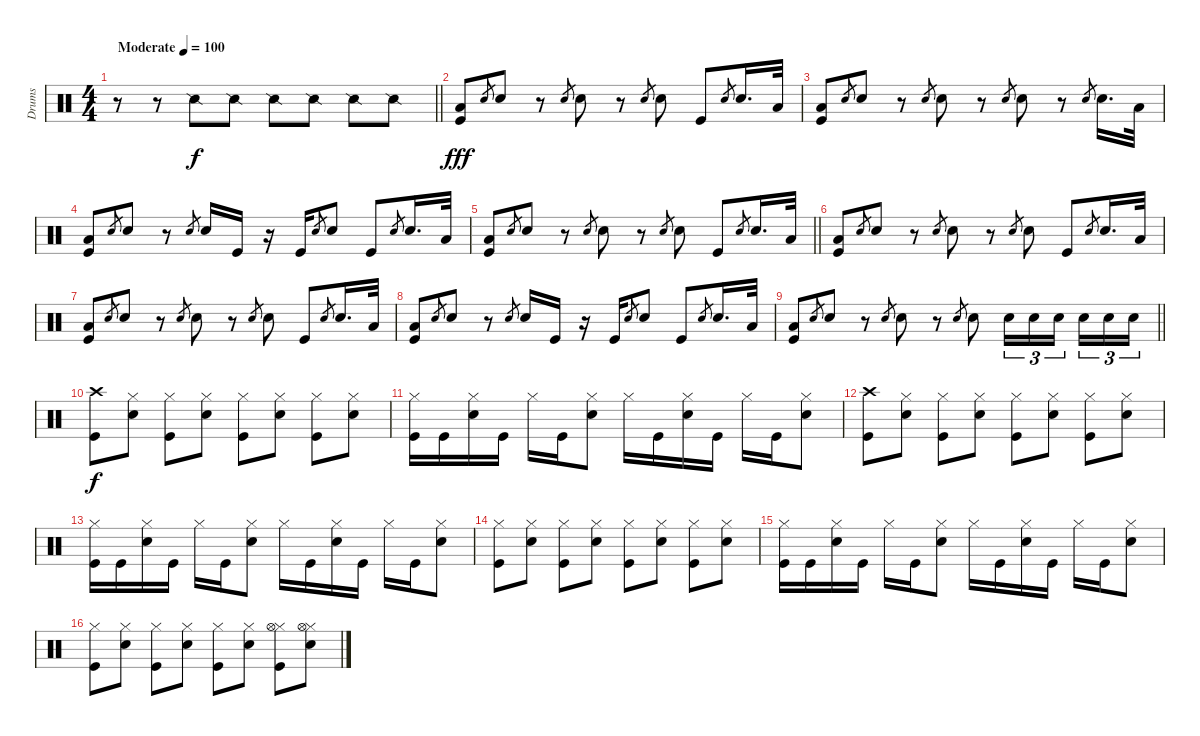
\track ("Drums" "Drums") {instrument percussion}
\staff {score}
\articulation defaults
\ts (4 4)
\tempo (100 "Moderate")
\clef neutral
\barLineRight lightlight
\ks c
r.8{dy f} r.8 "Snare (side stick) 2".8 "Snare (side stick) 2".8 "Snare (side stick) 2".8 "Snare (side stick) 2".8 "Snare (side stick) 2".8 "Snare (side stick) 2".8 |
\section ("" "")
("Low Floor Tom (hit)" "Kick (hit)").8{dy fff} "Snare (hit) 2".8{gr} "Snare (hit) 2".8 r.8 "Snare (hit) 2".8{gr} "Snare (hit) 2".8 r.8 "Snare (hit) 2".8{gr} "Snare (hit) 2".8 "Kick (hit)".8 "Snare (hit) 2".8{gr} "Snare (hit) 2".16{d} "Low Floor Tom (hit)".32 |
("Low Floor Tom (hit)" "Kick (hit)").8 "Snare (hit) 2".8{gr} "Snare (hit) 2".8 r.8 "Snare (hit) 2".8{gr} "Snare (hit) 2".8 r.8 "Snare (hit) 2".8{gr} "Snare (hit) 2".8 r.8 "Snare (hit) 2".8{gr} "Snare (hit) 2".16{d} "Low Floor Tom (hit)".32 |
("Low Floor Tom (hit)" "Kick (hit)").8 "Snare (hit) 2".8{gr} "Snare (hit) 2".8 r.8 "Snare (hit) 2".8{gr} "Snare (hit) 2".16 "Kick (hit)".16 r.16 "Kick (hit)".16 "Snare (hit) 2".8{gr} "Snare (hit) 2".8 "Kick (hit)".8 "Snare (hit) 2".8{gr} "Snare (hit) 2".16{d} "Low Floor Tom (hit)".32 |
\barLineRight lightlight
("Low Floor Tom (hit)" "Kick (hit)").8 "Snare (hit) 2".8{gr} "Snare (hit) 2".8 r.8 "Snare (hit) 2".8{gr} "Snare (hit) 2".8 r.8 "Snare (hit) 2".8{gr} "Snare (hit) 2".8 "Kick (hit)".8 "Snare (hit) 2".8{gr} "Snare (hit) 2".16{d} "Low Tom (hit)".32 |
("Low Floor Tom (hit)" "Kick (hit)").8 "Snare (hit) 2".8{gr} "Snare (hit) 2".8 r.8 "Snare (hit) 2".8{gr} "Snare (hit) 2".8 r.8 "Snare (hit) 2".8{gr} "Snare (hit) 2".8 "Kick (hit)".8 "Snare (hit) 2".8{gr} "Snare (hit) 2".16{d} "Low Tom (hit)".32 |
("Low Floor Tom (hit)" "Kick (hit)").8 "Snare (hit) 2".8{gr} "Snare (hit) 2".8 r.8 "Snare (hit) 2".8{gr} "Snare (hit) 2".8 r.8 "Snare (hit) 2".8{gr} "Snare (hit) 2".8 "Kick (hit)".8 "Snare (hit) 2".8{gr} "Snare (hit) 2".16{d} "Low Tom (hit)".32 |
("Low Floor Tom (hit)" "Kick (hit)").8 "Snare (hit) 2".8{gr} "Snare (hit) 2".8 r.8 "Snare (hit) 2".8{gr} "Snare (hit) 2".16 "Kick (hit)".16 r.16 "Kick (hit)".16 "Snare (hit) 2".8{gr} "Snare (hit) 2".8 "Kick (hit)".8 "Snare (hit) 2".8{gr} "Snare (hit) 2".16{d} "Low Tom (hit)".32 |
\barLineRight lightlight
("Low Floor Tom (hit)" "Kick (hit)").8 "Snare (hit) 2".8{gr} "Snare (hit) 2".8 r.8 "Snare (hit) 2".8{gr} "Snare (hit) 2".8 r.8 "Snare (hit) 2".8{gr} "Snare (hit) 2".8 "Snare (hit) 2".16{tu (3 2)} "Snare (hit) 2".16{tu (3 2)} "Snare (hit) 2".16{tu (3 2) beam splitsecondary} "Snare (hit) 2".16{tu (3 2)} "Snare (hit) 2".16{tu (3 2)} "Snare (hit) 2".16{tu (3 2)} |
\section ("" "")
("Crash high (hit)" "Kick (hit)").8{dy f} ("Hi-Hat (closed)" "Snare (hit) 2").8 ("Hi-Hat (closed)" "Kick (hit)").8 ("Hi-Hat (closed)" "Snare (hit) 2").8 ("Hi-Hat (closed)" "Kick (hit)").8 ("Hi-Hat (closed)" "Snare (hit) 2").8 ("Hi-Hat (closed)" "Kick (hit)").8 ("Hi-Hat (closed)" "Snare (hit) 2").8 |
("Hi-Hat (closed)" "Kick (hit)").16 "Kick (hit)".16 ("Hi-Hat (closed)" "Snare (hit) 2").16 "Kick (hit)".16 "Hi-Hat (closed)".16 "Kick (hit)".16 ("Hi-Hat (closed)" "Snare (hit) 2").8 "Hi-Hat (closed)".16 "Kick (hit)".16 ("Hi-Hat (closed)" "Snare (hit) 2").16 "Kick (hit)".16 "Hi-Hat (closed)".16 "Kick (hit)".16 ("Hi-Hat (closed)" "Snare (hit) 2").8 |
("Crash high (hit)" "Kick (hit)").8 ("Hi-Hat (closed)" "Snare (hit) 2").8 ("Hi-Hat (closed)" "Kick (hit)").8 ("Hi-Hat (closed)" "Snare (hit) 2").8 ("Hi-Hat (closed)" "Kick (hit)").8 ("Hi-Hat (closed)" "Snare (hit) 2").8 ("Hi-Hat (closed)" "Kick (hit)").8 ("Hi-Hat (closed)" "Snare (hit) 2").8 |
("Hi-Hat (closed)" "Kick (hit)").16 "Kick (hit)".16 ("Hi-Hat (closed)" "Snare (hit) 2").16 "Kick (hit)".16 "Hi-Hat (closed)".16 "Kick (hit)".16 ("Hi-Hat (closed)" "Snare (hit) 2").8 "Hi-Hat (closed)".16 "Kick (hit)".16 ("Hi-Hat (closed)" "Snare (hit) 2").16 "Kick (hit)".16 "Hi-Hat (closed)".16 "Kick (hit)".16 ("Hi-Hat (closed)" "Snare (hit) 2").8 |
("Hi-Hat (closed)" "Kick (hit)").8 ("Hi-Hat (closed)" "Snare (hit) 2").8 ("Hi-Hat (closed)" "Kick (hit)").8 ("Hi-Hat (closed)" "Snare (hit) 2").8 ("Hi-Hat (closed)" "Kick (hit)").8 ("Hi-Hat (closed)" "Snare (hit) 2").8 ("Hi-Hat (closed)" "Kick (hit)").8 ("Hi-Hat (closed)" "Snare (hit) 2").8 |
("Hi-Hat (closed)" "Kick (hit)").16 "Kick (hit)".16 ("Hi-Hat (closed)" "Snare (hit) 2").16 "Kick (hit)".16 "Hi-Hat (closed)".16 "Kick (hit)".16 ("Hi-Hat (closed)" "Snare (hit) 2").8 "Hi-Hat (closed)".16 "Kick (hit)".16 ("Hi-Hat (closed)" "Snare (hit) 2").16 "Kick (hit)".16 "Hi-Hat (closed)".16 "Kick (hit)".16 ("Hi-Hat (closed)" "Snare (hit) 2").8 |
("Hi-Hat (closed)" "Kick (hit)").8 ("Hi-Hat (closed)" "Snare (hit) 2").8 ("Hi-Hat (closed)" "Kick (hit)").8 ("Hi-Hat (closed)" "Snare (hit) 2").8 ("Hi-Hat (closed)" "Kick (hit)").8 ("Hi-Hat (closed)" "Snare (hit) 2").8 ("Hi-Hat (closed)" "Hi-Hat (open)" "Kick (hit)").8 ("Hi-Hat (closed)" "Hi-Hat (open)" "Snare (hit) 2").8
